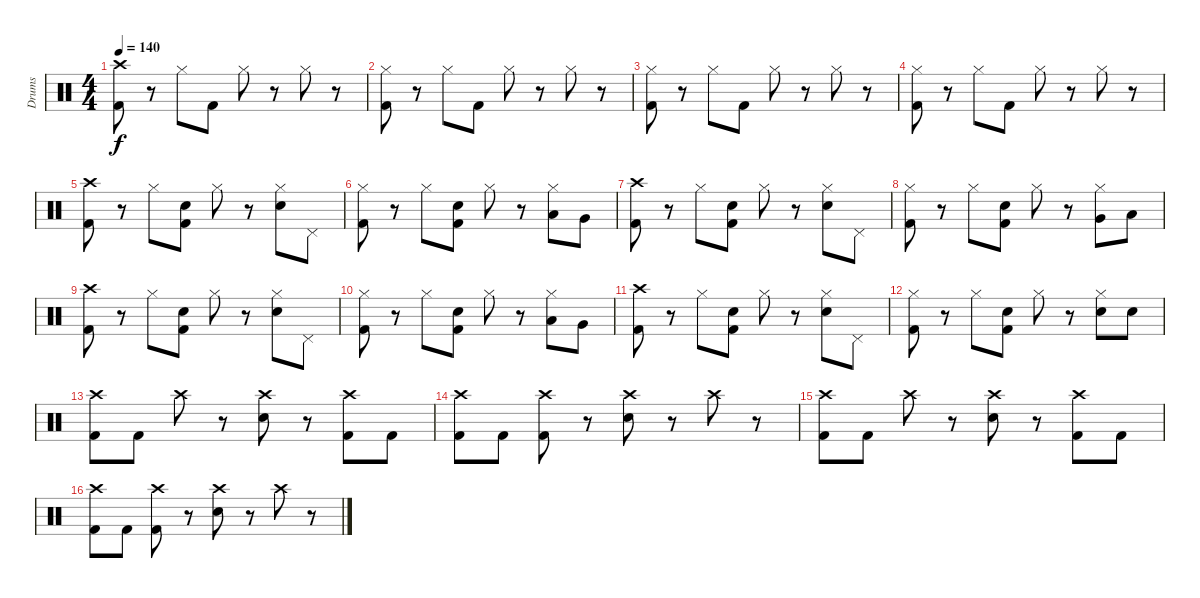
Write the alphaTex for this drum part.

\track ("Drums" "Drums") {instrument percussion}
\staff {score}
\articulation defaults
\ts (4 4)
\tempo 140
\clef neutral
\ks c
("Crash high (hit)" "Kick (hit) 2").8{dy f} r.8 "Hi-Hat (closed)".8 "Kick (hit) 2".8 "Hi-Hat (closed)".8 r.8 "Hi-Hat (closed)".8 r.8 |
("Hi-Hat (closed)" "Kick (hit) 2").8 r.8 "Hi-Hat (closed)".8 "Kick (hit) 2".8 "Hi-Hat (closed)".8 r.8 "Hi-Hat (closed)".8 r.8 |
("Hi-Hat (closed)" "Kick (hit) 2").8 r.8 "Hi-Hat (closed)".8 "Kick (hit) 2".8 "Hi-Hat (closed)".8 r.8 "Hi-Hat (closed)".8 r.8 |
\section ("" "")
("Hi-Hat (closed)" "Kick (hit) 2").8 r.8 "Hi-Hat (closed)".8 "Kick (hit) 2".8 "Hi-Hat (closed)".8 r.8 "Hi-Hat (closed)".8 r.8 |
("Crash high (hit)" "Kick (hit) 2").8 r.8 "Hi-Hat (closed)".8 ("Electric Snare (hit)" "Kick (hit) 2").8 "Hi-Hat (closed)".8 r.8 ("Hi-Hat (closed)" "Electric Snare (hit)").8 "Pedal Hi-Hat (hit)".8 |
("Hi-Hat (closed)" "Kick (hit) 2").8 r.8 "Hi-Hat (closed)".8 ("Electric Snare (hit)" "Kick (hit) 2").8 "Hi-Hat (closed)".8 r.8 ("Hi-Hat (closed)" "Low Tom (hit)").8 "Very Low Tom (hit)".8 |
("Crash high (hit)" "Kick (hit) 2").8 r.8 "Hi-Hat (closed)".8 ("Electric Snare (hit)" "Kick (hit) 2").8 "Hi-Hat (closed)".8 r.8 ("Hi-Hat (closed)" "Electric Snare (hit)").8 "Pedal Hi-Hat (hit)".8 |
("Hi-Hat (closed)" "Kick (hit) 2").8 r.8 "Hi-Hat (closed)".8 ("Electric Snare (hit)" "Kick (hit) 2").8 "Hi-Hat (closed)".8 r.8 ("Hi-Hat (closed)" "Very Low Tom (hit)").8 "Low Floor Tom (hit)".8 |
("Crash high (hit)" "Kick (hit) 2").8 r.8 "Hi-Hat (closed)".8 ("Electric Snare (hit)" "Kick (hit) 2").8 "Hi-Hat (closed)".8 r.8 ("Hi-Hat (closed)" "Electric Snare (hit)").8 "Pedal Hi-Hat (hit)".8 |
("Hi-Hat (closed)" "Kick (hit) 2").8 r.8 "Hi-Hat (closed)".8 ("Electric Snare (hit)" "Kick (hit) 2").8 "Hi-Hat (closed)".8 r.8 ("Hi-Hat (closed)" "Low Tom (hit)").8 "Very Low Tom (hit)".8 |
("Crash high (hit)" "Kick (hit) 2").8 r.8 "Hi-Hat (closed)".8 ("Electric Snare (hit)" "Kick (hit) 2").8 "Hi-Hat (closed)".8 r.8 ("Hi-Hat (closed)" "Electric Snare (hit)").8 "Pedal Hi-Hat (hit)".8 |
("Hi-Hat (closed)" "Kick (hit) 2").8 r.8 "Hi-Hat (closed)".8 ("Electric Snare (hit)" "Kick (hit) 2").8 "Hi-Hat (closed)".8 r.8 ("Hi-Hat (closed)" "Electric Snare (hit)").8 "Electric Snare (hit)".8 |
("Crash high (hit)" "Kick (hit) 2").8 "Kick (hit) 2".8 "Crash high (hit)".8 r.8 ("Crash high (hit)" "Electric Snare (hit)").8 r.8 ("Crash high (hit)" "Kick (hit) 2").8 "Kick (hit) 2".8 |
("Crash high (hit)" "Kick (hit) 2").8 "Kick (hit) 2".8 ("Crash high (hit)" "Kick (hit) 2").8 r.8 ("Crash high (hit)" "Electric Snare (hit)").8 r.8 "Crash high (hit)".8 r.8 |
("Crash high (hit)" "Kick (hit) 2").8 "Kick (hit) 2".8 "Crash high (hit)".8 r.8 ("Crash high (hit)" "Electric Snare (hit)").8 r.8 ("Crash high (hit)" "Kick (hit) 2").8 "Kick (hit) 2".8 |
("Crash high (hit)" "Kick (hit) 2").8 "Kick (hit) 2".8 ("Crash high (hit)" "Kick (hit) 2").8 r.8 ("Crash high (hit)" "Electric Snare (hit)").8 r.8 "Crash high (hit)".8 r.8
